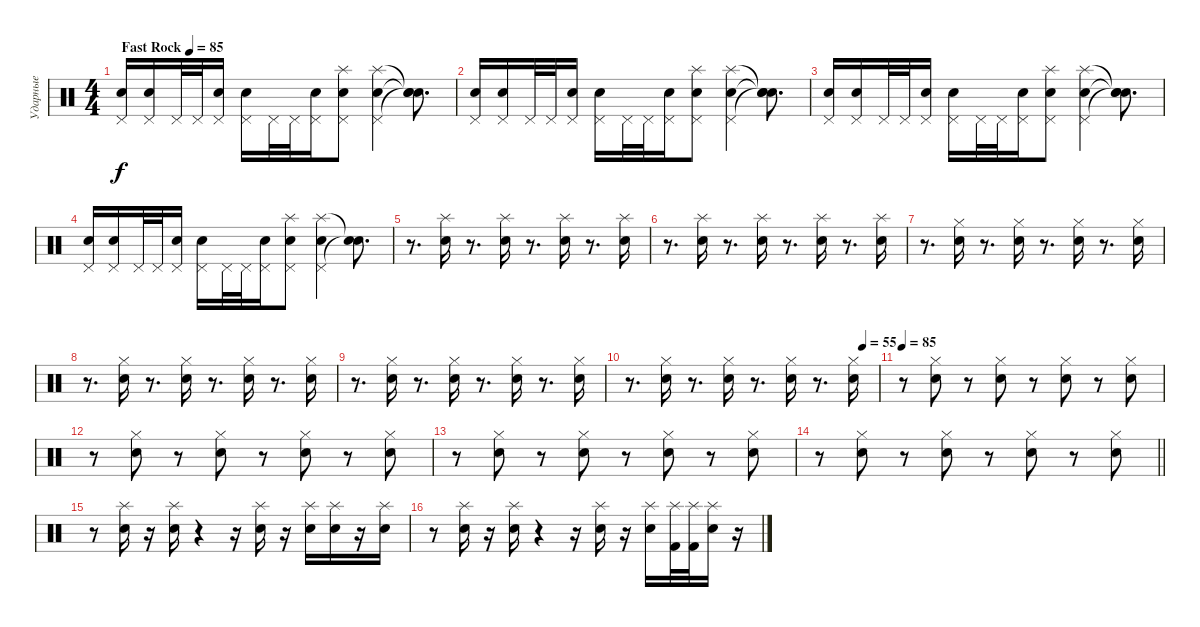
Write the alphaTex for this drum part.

\track ("Ударные" "Ударные") {instrument percussion}
\staff {score}
\articulation defaults
\ts (4 4)
\tempo (85 "Fast Rock")
\clef neutral
\ks c
("Pedal Hi-Hat (hit)" "Snare (hit) 2").16{dy f} ("Pedal Hi-Hat (hit)" "Snare (hit) 2").16 "Pedal Hi-Hat (hit)".32 "Pedal Hi-Hat (hit)".32 ("Pedal Hi-Hat (hit)" "Snare (hit) 2").16 ("Pedal Hi-Hat (hit)" "Snare (hit) 2").16 "Pedal Hi-Hat (hit)".32 "Pedal Hi-Hat (hit)".32 ("Pedal Hi-Hat (hit)" "Snare (hit) 2").16 ("Pedal Hi-Hat (hit)" "Splash (hit)" "Snare (hit) 2").8 ("Pedal Hi-Hat (hit)" "Splash (hit)" "Snare (hit) 2").4 ("Snare (hit)"{t} "Snare (hit)"{t} "Snare (hit)"{t}).8{d} |
("Pedal Hi-Hat (hit)" "Snare (hit) 2").16 ("Pedal Hi-Hat (hit)" "Snare (hit) 2").16 "Pedal Hi-Hat (hit)".32 "Pedal Hi-Hat (hit)".32 ("Pedal Hi-Hat (hit)" "Snare (hit) 2").16 ("Pedal Hi-Hat (hit)" "Snare (hit) 2").16 "Pedal Hi-Hat (hit)".32 "Pedal Hi-Hat (hit)".32 ("Pedal Hi-Hat (hit)" "Snare (hit) 2").16 ("Pedal Hi-Hat (hit)" "Splash (hit)" "Snare (hit) 2").8 ("Pedal Hi-Hat (hit)" "Splash (hit)" "Snare (hit) 2").4 ("Snare (hit)"{t} "Snare (hit)"{t} "Snare (hit)"{t}).8{d} |
("Pedal Hi-Hat (hit)" "Snare (hit) 2").16 ("Pedal Hi-Hat (hit)" "Snare (hit) 2").16 "Pedal Hi-Hat (hit)".32 "Pedal Hi-Hat (hit)".32 ("Pedal Hi-Hat (hit)" "Snare (hit) 2").16 ("Pedal Hi-Hat (hit)" "Snare (hit) 2").16 "Pedal Hi-Hat (hit)".32 "Pedal Hi-Hat (hit)".32 ("Pedal Hi-Hat (hit)" "Snare (hit) 2").16 ("Pedal Hi-Hat (hit)" "Splash (hit)" "Snare (hit) 2").8 ("Pedal Hi-Hat (hit)" "Splash (hit)" "Snare (hit) 2").4 ("Snare (hit)"{t} "Snare (hit)"{t} "Snare (hit)"{t}).8{d} |
("Pedal Hi-Hat (hit)" "Snare (hit) 2").16 ("Pedal Hi-Hat (hit)" "Snare (hit) 2").16 "Pedal Hi-Hat (hit)".32 "Pedal Hi-Hat (hit)".32 ("Pedal Hi-Hat (hit)" "Snare (hit) 2").16 ("Pedal Hi-Hat (hit)" "Snare (hit) 2").16 "Pedal Hi-Hat (hit)".32 "Pedal Hi-Hat (hit)".32 ("Pedal Hi-Hat (hit)" "Snare (hit) 2").16 ("Pedal Hi-Hat (hit)" "Splash (hit)" "Snare (hit) 2").8 ("Pedal Hi-Hat (hit)" "Splash (hit)" "Snare (hit) 2").4 ("Snare (hit)"{t} "Snare (hit)"{t}).8{d} |
r.8{d} ("Splash (hit)" "Snare (hit) 2").16 r.8{d} ("Splash (hit)" "Snare (hit) 2").16 r.8{d} ("Splash (hit)" "Snare (hit) 2").16 r.8{d} ("Splash (hit)" "Snare (hit) 2").16 |
r.8{d} ("Splash (hit)" "Snare (hit) 2").16 r.8{d} ("Splash (hit)" "Snare (hit) 2").16 r.8{d} ("Splash (hit)" "Snare (hit) 2").16 r.8{d} ("Splash (hit)" "Snare (hit) 2").16 |
r.8{d} ("Hi-Hat (closed)" "Snare (hit) 2").16 r.8{d} ("Hi-Hat (closed)" "Snare (hit) 2").16 r.8{d} ("Hi-Hat (closed)" "Snare (hit) 2").16 r.8{d} ("Hi-Hat (closed)" "Snare (hit) 2").16 |
r.8{d} ("Hi-Hat (closed)" "Snare (hit) 2").16 r.8{d} ("Hi-Hat (closed)" "Snare (hit) 2").16 r.8{d} ("Hi-Hat (closed)" "Snare (hit) 2").16 r.8{d} ("Hi-Hat (closed)" "Snare (hit) 2").16 |
r.8{d} ("Hi-Hat (closed)" "Snare (hit) 2").16 r.8{d} ("Hi-Hat (closed)" "Snare (hit) 2").16 r.8{d} ("Hi-Hat (closed)" "Snare (hit) 2").16 r.8{d} ("Hi-Hat (closed)" "Snare (hit) 2").16 |
\tempo (55 0.9375)
r.8{d} ("Hi-Hat (closed)" "Snare (hit) 2").16 r.8{d} ("Hi-Hat (closed)" "Snare (hit) 2").16 r.8{d} ("Hi-Hat (closed)" "Snare (hit) 2").16 r.8{d} ("Hi-Hat (closed)" "Snare (hit) 2").16 |
\tempo 85
r.8 ("Hi-Hat (closed)" "Snare (hit) 2").8 r.8 ("Hi-Hat (closed)" "Snare (hit) 2").8 r.8 ("Hi-Hat (closed)" "Snare (hit) 2").8 r.8 ("Hi-Hat (closed)" "Snare (hit) 2").8 |
r.8 ("Hi-Hat (closed)" "Snare (hit) 2").8 r.8 ("Hi-Hat (closed)" "Snare (hit) 2").8 r.8 ("Hi-Hat (closed)" "Snare (hit) 2").8 r.8 ("Hi-Hat (closed)" "Snare (hit) 2").8 |
r.8 ("Hi-Hat (closed)" "Snare (hit) 2").8 r.8 ("Hi-Hat (closed)" "Snare (hit) 2").8 r.8 ("Hi-Hat (closed)" "Snare (hit) 2").8 r.8 ("Hi-Hat (closed)" "Snare (hit) 2").8 |
\barLineRight lightlight
r.8 ("Hi-Hat (closed)" "Snare (hit) 2").8 r.8 ("Hi-Hat (closed)" "Snare (hit) 2").8 r.8 ("Hi-Hat (closed)" "Snare (hit) 2").8 r.8 ("Hi-Hat (closed)" "Snare (hit) 2").8 |
r.8 ("Splash (hit)" "Snare (hit) 2").16 r.16 ("Splash (hit)" "Snare (hit) 2").16 r.4 r.16 ("Splash (hit)" "Snare (hit) 2").16 r.16 ("Splash (hit)" "Snare (hit) 2").16 ("Splash (hit)" "Snare (hit) 2").16 r.16 ("Splash (hit)" "Snare (hit) 2").16 |
r.8 ("Splash (hit)" "Snare (hit) 2").16 r.16 ("Splash (hit)" "Snare (hit) 2").16 r.4 r.16 ("Splash (hit)" "Snare (hit) 2").16 r.16 ("Splash (hit)" "Snare (hit) 2").16 ("Splash (hit)" "Kick (hit) 2").32 ("Splash (hit)" "Kick (hit) 2").32 ("Splash (hit)" "Snare (hit) 2").16 r.16
